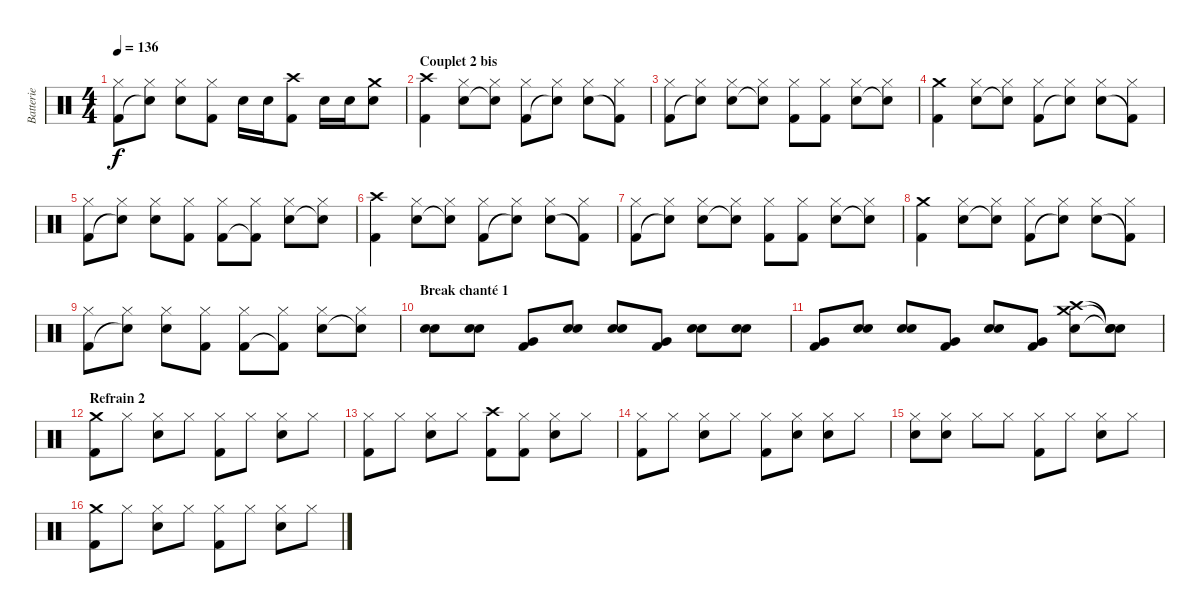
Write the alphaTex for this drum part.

\track ("Batterie" "Batterie") {instrument percussion}
\staff {score}
\articulation defaults
\ts (4 4)
\tempo 136
\clef neutral
\ks c
("Hi-Hat (closed)" "Kick (hit) 2").8{dy f} ("Hi-Hat (closed)" "Snare (hit)"{t}).8 ("Hi-Hat (closed)" "Snare (hit) 2").8 ("Hi-Hat (closed)" "Kick (hit) 2").8 "Snare (hit) 2".16 "Snare (hit) 2".16 ("Crash high (hit)" "Kick (hit) 2").8 "Snare (hit) 2".16 "Snare (hit) 2".16 ("Crash medium (hit)" "Snare (hit) 2").8 |
\section ("" "Couplet 2 bis")
("Crash high (hit)" "Kick (hit) 2").4 ("Hi-Hat (closed)" "Snare (hit) 2").8 ("Hi-Hat (closed)" "Snare (hit)"{t}).8 ("Hi-Hat (closed)" "Kick (hit) 2").8 ("Hi-Hat (closed)" "Snare (hit)"{t}).8 ("Hi-Hat (closed)" "Snare (hit) 2").8 ("Hi-Hat (closed)" "Kick (hit) 2"{t}).8 |
("Hi-Hat (closed)" "Kick (hit) 2").8 ("Hi-Hat (closed)" "Snare (hit)"{t}).8 ("Hi-Hat (closed)" "Snare (hit) 2").8 ("Hi-Hat (closed)" "Snare (hit)"{t}).8 ("Hi-Hat (closed)" "Kick (hit) 2").8 ("Hi-Hat (closed)" "Kick (hit) 2").8 ("Hi-Hat (closed)" "Snare (hit) 2").8 ("Hi-Hat (closed)" "Snare (hit)"{t}).8 |
("Crash medium (hit)" "Kick (hit) 2").4 ("Hi-Hat (closed)" "Snare (hit) 2").8 ("Hi-Hat (closed)" "Snare (hit)"{t}).8 ("Hi-Hat (closed)" "Kick (hit) 2").8 ("Hi-Hat (closed)" "Snare (hit)"{t}).8 ("Hi-Hat (closed)" "Snare (hit) 2").8 ("Hi-Hat (closed)" "Kick (hit) 2"{t}).8 |
("Hi-Hat (closed)" "Kick (hit) 2").8 ("Hi-Hat (closed)" "Snare (hit)"{t}).8 ("Hi-Hat (closed)" "Snare (hit) 2").8 ("Hi-Hat (closed)" "Kick (hit) 2").8 ("Hi-Hat (closed)" "Kick (hit) 2").8 ("Hi-Hat (closed)" "Kick (hit) 2"{t}).8 ("Hi-Hat (closed)" "Snare (hit) 2").8 ("Hi-Hat (closed)" "Snare (hit)"{t}).8 |
("Crash high (hit)" "Kick (hit) 2").4 ("Hi-Hat (closed)" "Snare (hit) 2").8 ("Hi-Hat (closed)" "Snare (hit)"{t}).8 ("Hi-Hat (closed)" "Kick (hit) 2").8 ("Hi-Hat (closed)" "Snare (hit)"{t}).8 ("Hi-Hat (closed)" "Snare (hit) 2").8 ("Hi-Hat (closed)" "Kick (hit) 2"{t}).8 |
("Hi-Hat (closed)" "Kick (hit) 2").8 ("Hi-Hat (closed)" "Snare (hit)"{t}).8 ("Hi-Hat (closed)" "Snare (hit) 2").8 ("Hi-Hat (closed)" "Snare (hit)"{t}).8 ("Hi-Hat (closed)" "Kick (hit) 2").8 ("Hi-Hat (closed)" "Kick (hit) 2").8 ("Hi-Hat (closed)" "Snare (hit) 2").8 ("Hi-Hat (closed)" "Snare (hit)"{t}).8 |
("Crash medium (hit)" "Kick (hit) 2").4 ("Hi-Hat (closed)" "Snare (hit) 2").8 ("Hi-Hat (closed)" "Snare (hit)"{t}).8 ("Hi-Hat (closed)" "Kick (hit) 2").8 ("Hi-Hat (closed)" "Snare (hit)"{t}).8 ("Hi-Hat (closed)" "Snare (hit) 2").8 ("Hi-Hat (closed)" "Kick (hit) 2"{t}).8 |
("Hi-Hat (closed)" "Kick (hit) 2").8 ("Hi-Hat (closed)" "Snare (hit)"{t}).8 ("Hi-Hat (closed)" "Snare (hit) 2").8 ("Hi-Hat (closed)" "Kick (hit) 2").8 ("Hi-Hat (closed)" "Kick (hit) 2").8 ("Hi-Hat (closed)" "Kick (hit) 2"{t}).8 ("Hi-Hat (closed)" "Snare (hit) 2").8 ("Hi-Hat (closed)" "Snare (hit)"{t}).8 |
\section ("" "Break chanté 1")
("Snare (hit) 2" "Snare (hit) 2").8 ("Snare (hit) 2" "Snare (hit) 2").8 ("Very Low Tom (hit)" "Kick (hit) 2").8 ("Snare (hit) 2" "Snare (hit) 2").8 ("Snare (hit) 2" "Snare (hit) 2").8 ("Very Low Tom (hit)" "Kick (hit) 2").8 ("Snare (hit) 2" "Snare (hit) 2").8 ("Snare (hit) 2" "Snare (hit) 2").8 |
("Very Low Tom (hit)" "Kick (hit) 2").8 ("Snare (hit) 2" "Snare (hit) 2").8 ("Snare (hit) 2" "Snare (hit) 2").8 ("Very Low Tom (hit)" "Kick (hit) 2").8 ("Snare (hit) 2" "Snare (hit) 2").8 ("Very Low Tom (hit)" "Kick (hit) 2").8 ("Crash high (hit)" "Crash medium (hit)" "Snare (hit) 2").8 ("Snare (hit)"{t} "Snare (hit)"{t} "Snare (hit)"{t}).8 |
\section ("" "Refrain 2")
("Crash medium (hit)" "Kick (hit) 2").8 "Hi-Hat (closed)".8 ("Hi-Hat (closed)" "Snare (hit) 2").8 "Hi-Hat (closed)".8 ("Hi-Hat (closed)" "Kick (hit) 2").8 "Hi-Hat (closed)".8 ("Hi-Hat (closed)" "Snare (hit) 2").8 "Hi-Hat (closed)".8 |
("Hi-Hat (closed)" "Kick (hit) 2").8 "Hi-Hat (closed)".8 ("Hi-Hat (closed)" "Snare (hit) 2").8 "Hi-Hat (closed)".8 ("Crash high (hit)" "Kick (hit) 2").8 ("Hi-Hat (closed)" "Kick (hit) 2").8 ("Hi-Hat (closed)" "Snare (hit) 2").8 "Hi-Hat (closed)".8 |
("Hi-Hat (closed)" "Kick (hit) 2").8 "Hi-Hat (closed)".8 ("Hi-Hat (closed)" "Snare (hit) 2").8 "Hi-Hat (closed)".8 ("Hi-Hat (closed)" "Kick (hit) 2").8 ("Hi-Hat (closed)" "Snare (hit) 2").8 ("Hi-Hat (closed)" "Snare (hit) 2").8 "Hi-Hat (closed)".8 |
("Hi-Hat (closed)" "Snare (hit) 2").8 ("Hi-Hat (closed)" "Snare (hit) 2").8 "Hi-Hat (closed)".8 "Hi-Hat (closed)".8 ("Hi-Hat (closed)" "Kick (hit) 2").8 "Hi-Hat (closed)".8 ("Hi-Hat (closed)" "Snare (hit) 2").8 "Hi-Hat (closed)".8 |
("Crash medium (hit)" "Kick (hit) 2").8 "Hi-Hat (closed)".8 ("Hi-Hat (closed)" "Snare (hit) 2").8 "Hi-Hat (closed)".8 ("Hi-Hat (closed)" "Kick (hit) 2").8 "Hi-Hat (closed)".8 ("Hi-Hat (closed)" "Snare (hit) 2").8 "Hi-Hat (closed)".8
